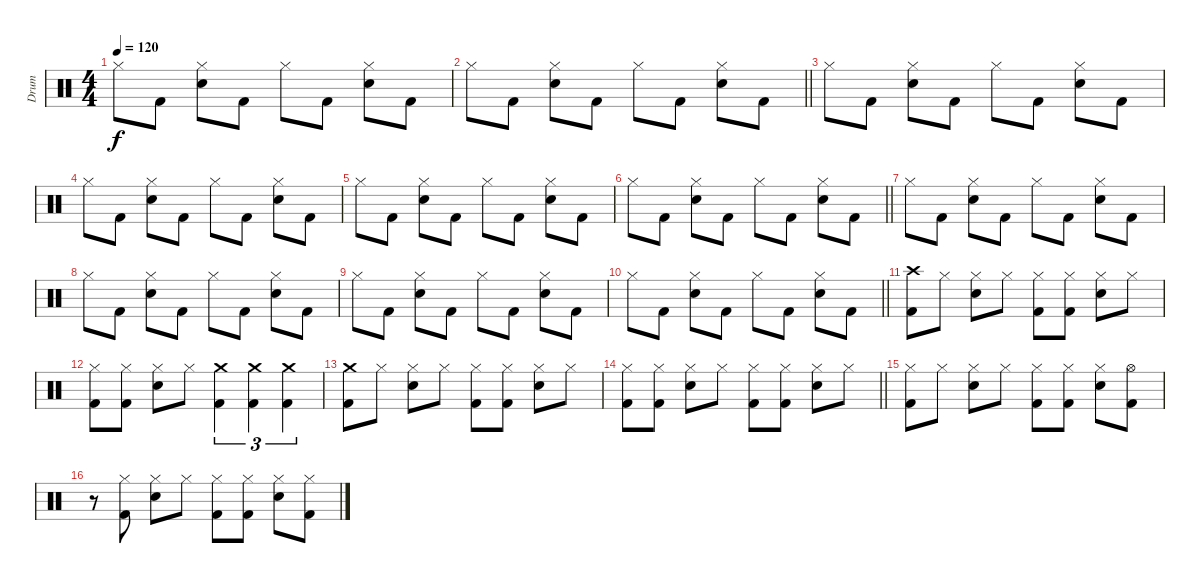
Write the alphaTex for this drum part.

\track ("Drum" "Drum") {instrument percussion}
\staff {score}
\articulation defaults
\ts (4 4)
\tempo 120
\clef neutral
\ks c "Hi-Hat (closed)".8{dy f} "Kick (hit) 2".8
("Hi-Hat (closed)" "Electric Snare (hit)").8 "Kick (hit) 2".8 "Hi-Hat (closed)".8 "Kick (hit) 2".8 ("Hi-Hat (closed)" "Electric Snare (hit)").8 "Kick (hit) 2".8 |
\barLineRight lightlight "Hi-Hat (closed)".8 "Kick (hit) 2".8
("Hi-Hat (closed)" "Electric Snare (hit)").8 "Kick (hit) 2".8 "Hi-Hat (closed)".8 "Kick (hit) 2".8 ("Hi-Hat (closed)" "Electric Snare (hit)").8 "Kick (hit) 2".8 |
"Hi-Hat (closed)".8 "Kick (hit) 2".8 ("Hi-Hat (closed)" "Electric Snare (hit)").8 "Kick (hit) 2".8 "Hi-Hat (closed)".8 "Kick (hit) 2".8 ("Hi-Hat (closed)" "Electric Snare (hit)").8 "Kick (hit) 2".8 |
"Hi-Hat (closed)".8 "Kick (hit) 2".8 ("Hi-Hat (closed)" "Electric Snare (hit)").8 "Kick (hit) 2".8 "Hi-Hat (closed)".8 "Kick (hit) 2".8 ("Hi-Hat (closed)" "Electric Snare (hit)").8 "Kick (hit) 2".8 |
"Hi-Hat (closed)".8 "Kick (hit) 2".8 ("Hi-Hat (closed)" "Electric Snare (hit)").8 "Kick (hit) 2".8 "Hi-Hat (closed)".8 "Kick (hit) 2".8 ("Hi-Hat (closed)" "Electric Snare (hit)").8 "Kick (hit) 2".8 |
\barLineRight lightlight "Hi-Hat (closed)".8 "Kick (hit) 2".8
("Hi-Hat (closed)" "Electric Snare (hit)").8 "Kick (hit) 2".8 "Hi-Hat (closed)".8 "Kick (hit) 2".8 ("Hi-Hat (closed)" "Electric Snare (hit)").8 "Kick (hit) 2".8 |
"Hi-Hat (closed)".8 "Kick (hit) 2".8 ("Hi-Hat (closed)" "Electric Snare (hit)").8 "Kick (hit) 2".8 "Hi-Hat (closed)".8 "Kick (hit) 2".8 ("Hi-Hat (closed)" "Electric Snare (hit)").8 "Kick (hit) 2".8 |
"Hi-Hat (closed)".8 "Kick (hit) 2".8 ("Hi-Hat (closed)" "Electric Snare (hit)").8 "Kick (hit) 2".8 "Hi-Hat (closed)".8 "Kick (hit) 2".8 ("Hi-Hat (closed)" "Electric Snare (hit)").8 "Kick (hit) 2".8 |
"Hi-Hat (closed)".8 "Kick (hit) 2".8 ("Hi-Hat (closed)" "Electric Snare (hit)").8 "Kick (hit) 2".8 "Hi-Hat (closed)".8 "Kick (hit) 2".8 ("Hi-Hat (closed)" "Electric Snare (hit)").8 "Kick (hit) 2".8 |
\barLineRight lightlight "Hi-Hat (closed)".8 "Kick (hit) 2".8
("Hi-Hat (closed)" "Electric Snare (hit)").8 "Kick (hit) 2".8 "Hi-Hat (closed)".8 "Kick (hit) 2".8 ("Hi-Hat (closed)" "Electric Snare (hit)").8 "Kick (hit) 2".8 |
("Crash high (hit)" "Kick (hit) 2").8 "Hi-Hat (closed)".8 ("Hi-Hat (closed)" "Electric Snare (hit)").8 "Hi-Hat (closed)".8 ("Hi-Hat (closed)" "Kick (hit) 2").8 ("Hi-Hat (closed)" "Kick (hit) 2").8 ("Hi-Hat (closed)" "Electric Snare (hit)").8 "Hi-Hat (closed)".8 |
("Hi-Hat (closed)" "Kick (hit) 2").8 ("Hi-Hat (closed)" "Kick (hit) 2").8 ("Hi-Hat (closed)" "Electric Snare (hit)").8 "Hi-Hat (closed)".8 ("Crash medium (hit)" "Kick (hit) 2").4{tu (3 2)} ("Crash medium (hit)" "Kick (hit) 2").4{tu (3 2)} ("Crash medium (hit)" "Kick (hit) 2").4{tu (3 2)} |
("Crash medium (hit)" "Kick (hit) 2").8 "Hi-Hat (closed)".8 ("Hi-Hat (closed)" "Electric Snare (hit)").8 "Hi-Hat (closed)".8 ("Hi-Hat (closed)" "Kick (hit) 2").8 ("Hi-Hat (closed)" "Kick (hit) 2").8 ("Hi-Hat (closed)" "Electric Snare (hit)").8 "Hi-Hat (closed)".8 |
\barLineRight lightlight
("Hi-Hat (closed)" "Kick (hit) 2").8 ("Hi-Hat (closed)" "Kick (hit) 2").8 ("Hi-Hat (closed)" "Electric Snare (hit)").8 "Hi-Hat (closed)".8 ("Hi-Hat (closed)" "Kick (hit) 2").8 ("Hi-Hat (closed)" "Kick (hit) 2").8 ("Hi-Hat (closed)" "Electric Snare (hit)").8 "Hi-Hat (closed)".8 |
("Hi-Hat (closed)" "Kick (hit) 2").8 "Hi-Hat (closed)".8 ("Hi-Hat (closed)" "Electric Snare (hit)").8 "Hi-Hat (closed)".8 ("Hi-Hat (closed)" "Kick (hit) 2").8 ("Hi-Hat (closed)" "Kick (hit) 2").8 ("Hi-Hat (closed)" "Electric Snare (hit)").8 ("Hi-Hat (open)" "Kick (hit) 2").8 |
r.8 ("Hi-Hat (closed)" "Kick (hit) 2").8 ("Hi-Hat (closed)" "Electric Snare (hit)").8 "Hi-Hat (closed)".8 ("Hi-Hat (closed)" "Kick (hit) 2").8 ("Hi-Hat (closed)" "Kick (hit) 2").8 ("Hi-Hat (closed)" "Electric Snare (hit)").8 ("Hi-Hat (closed)" "Kick (hit) 2").8
